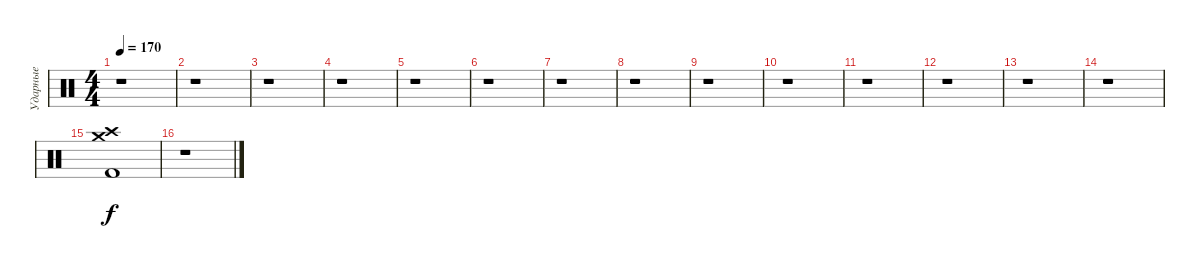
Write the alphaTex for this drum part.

\track ("Ударные" "Ударные") {instrument percussion}
\staff {score}
\articulation defaults
\ts (4 4)
\tempo 170
\clef neutral
\ks c
r.1{dy fff} |
r.1 |
r.1 |
r.1 |
r.1 |
r.1 |
r.1 |
r.1 |
r.1 |
r.1 |
r.1 |
r.1 |
r.1 |
r.1 |
("Kick (hit) 2" "Crash high (hit)" "Crash medium (hit)").1{dy f} |
r.1
